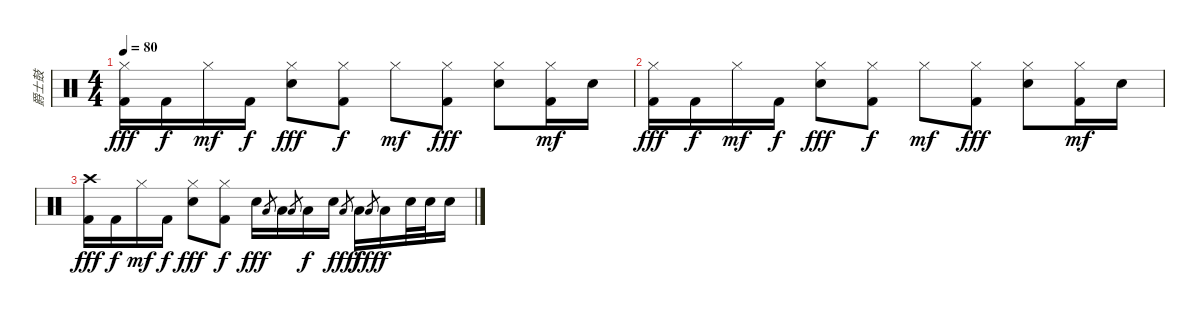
\track ("爵士鼓" "爵士鼓") {instrument percussion}
\staff {score}
\articulation defaults
\ts (4 4)
\tempo 80
\clef neutral
\ks c
("Hi-Hat (closed)" "Kick (hit) 2").16{dy fff} "Kick (hit) 2".16{dy f} "Hi-Hat (closed)".16{dy mf} "Kick (hit) 2".16{dy f} ("Hi-Hat (closed)" "Electric Snare (hit)").8{dy fff} ("Hi-Hat (closed)" "Kick (hit) 2").8{dy f} "Hi-Hat (closed)".8{dy mf} ("Hi-Hat (closed)" "Kick (hit) 2").8{dy fff} ("Hi-Hat (closed)" "Electric Snare (hit)").8 ("Hi-Hat (closed)" "Kick (hit) 2").16{dy mf} "Electric Snare (hit)".16 |
("Hi-Hat (closed)" "Kick (hit) 2").16{dy fff} "Kick (hit) 2".16{dy f} "Hi-Hat (closed)".16{dy mf} "Kick (hit) 2".16{dy f} ("Hi-Hat (closed)" "Electric Snare (hit)").8{dy fff} ("Hi-Hat (closed)" "Kick (hit) 2").8{dy f} "Hi-Hat (closed)".8{dy mf} ("Hi-Hat (closed)" "Kick (hit) 2").8{dy fff} ("Hi-Hat (closed)" "Electric Snare (hit)").8 ("Hi-Hat (closed)" "Kick (hit) 2").16{dy mf} "Electric Snare (hit)".16 |
("Crash high (hit)" "Kick (hit) 2").16{dy fff} "Kick (hit) 2".16{dy f} "Hi-Hat (closed)".16{dy mf} "Kick (hit) 2".16{dy f} ("Hi-Hat (closed)" "Electric Snare (hit)").8{dy fff} ("Hi-Hat (closed)" "Kick (hit) 2").8{dy f} "Electric Snare (hit)".16{dy fff} "Low Tom (hit)".8{gr} "Low Tom (hit)".16 "Low Tom (hit)".8{gr} "Low Tom (hit)".16{dy f} "Electric Snare (hit)".16 "Low Tom (hit)".8{gr dy fff} "Low Tom (hit)".16{dy f} "Low Tom (hit)".8{gr dy fff} "Low Tom (hit)".16{dy f} "Electric Snare (hit)".32 "Electric Snare (hit)".32 "Electric Snare (hit)".16
